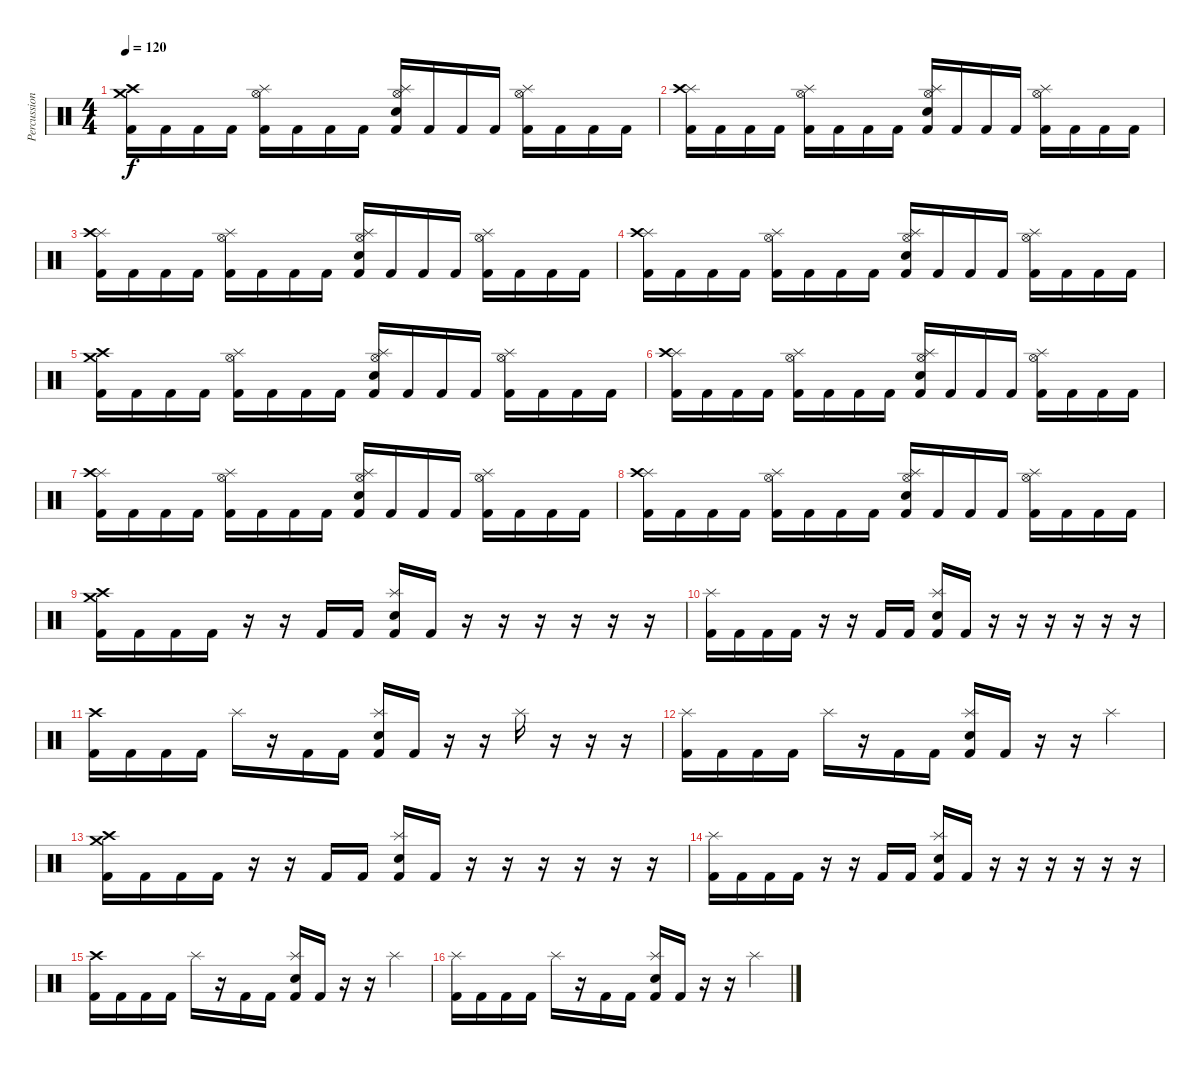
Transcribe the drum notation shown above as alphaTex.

\track ("Percussion" "Percussion") {instrument percussion}
\staff {score}
\articulation defaults
\ts (4 4)
\tempo 120
\clef neutral
\ks c
("Crash medium (hit)" "Crash high (hit)" "Kick (hit) 2").16{dy f} "Kick (hit) 2".16 "Kick (hit) 2".16 "Kick (hit) 2".16 ("Splash (hit)" "Hi-Hat (open)" "Kick (hit) 2").16 "Kick (hit) 2".16 "Kick (hit) 2".16 "Kick (hit) 2".16 ("Splash (hit)" "Hi-Hat (open)" "Snare (hit) 2" "Kick (hit) 2").16 "Kick (hit) 2".16 "Kick (hit) 2".16 "Kick (hit) 2".16 ("Splash (hit)" "Hi-Hat (open)" "Kick (hit) 2").16 "Kick (hit) 2".16 "Kick (hit) 2".16 "Kick (hit) 2".16 |
("Splash (hit)" "Crash high (hit)" "Kick (hit) 2").16 "Kick (hit) 2".16 "Kick (hit) 2".16 "Kick (hit) 2".16 ("Splash (hit)" "Hi-Hat (open)" "Kick (hit) 2").16 "Kick (hit) 2".16 "Kick (hit) 2".16 "Kick (hit) 2".16 ("Splash (hit)" "Hi-Hat (open)" "Snare (hit) 2" "Kick (hit) 2").16 "Kick (hit) 2".16 "Kick (hit) 2".16 "Kick (hit) 2".16 ("Splash (hit)" "Hi-Hat (open)" "Kick (hit) 2").16 "Kick (hit) 2".16 "Kick (hit) 2".16 "Kick (hit) 2".16 |
("Splash (hit)" "Crash high (hit)" "Kick (hit) 2").16 "Kick (hit) 2".16 "Kick (hit) 2".16 "Kick (hit) 2".16 ("Splash (hit)" "Hi-Hat (open)" "Kick (hit) 2").16 "Kick (hit) 2".16 "Kick (hit) 2".16 "Kick (hit) 2".16 ("Splash (hit)" "Hi-Hat (open)" "Snare (hit) 2" "Kick (hit) 2").16 "Kick (hit) 2".16 "Kick (hit) 2".16 "Kick (hit) 2".16 ("Splash (hit)" "Hi-Hat (open)" "Kick (hit) 2").16 "Kick (hit) 2".16 "Kick (hit) 2".16 "Kick (hit) 2".16 |
("Splash (hit)" "Crash high (hit)" "Kick (hit) 2").16 "Kick (hit) 2".16 "Kick (hit) 2".16 "Kick (hit) 2".16 ("Splash (hit)" "Hi-Hat (open)" "Kick (hit) 2").16 "Kick (hit) 2".16 "Kick (hit) 2".16 "Kick (hit) 2".16 ("Splash (hit)" "Hi-Hat (open)" "Snare (hit) 2" "Kick (hit) 2").16 "Kick (hit) 2".16 "Kick (hit) 2".16 "Kick (hit) 2".16 ("Splash (hit)" "Hi-Hat (open)" "Kick (hit) 2").16 "Kick (hit) 2".16 "Kick (hit) 2".16 "Kick (hit) 2".16 |
("Crash medium (hit)" "Crash high (hit)" "Kick (hit) 2").16 "Kick (hit) 2".16 "Kick (hit) 2".16 "Kick (hit) 2".16 ("Splash (hit)" "Hi-Hat (open)" "Kick (hit) 2").16 "Kick (hit) 2".16 "Kick (hit) 2".16 "Kick (hit) 2".16 ("Splash (hit)" "Hi-Hat (open)" "Snare (hit) 2" "Kick (hit) 2").16 "Kick (hit) 2".16 "Kick (hit) 2".16 "Kick (hit) 2".16 ("Splash (hit)" "Hi-Hat (open)" "Kick (hit) 2").16 "Kick (hit) 2".16 "Kick (hit) 2".16 "Kick (hit) 2".16 |
("Splash (hit)" "Crash high (hit)" "Kick (hit) 2").16 "Kick (hit) 2".16 "Kick (hit) 2".16 "Kick (hit) 2".16 ("Splash (hit)" "Hi-Hat (open)" "Kick (hit) 2").16 "Kick (hit) 2".16 "Kick (hit) 2".16 "Kick (hit) 2".16 ("Splash (hit)" "Hi-Hat (open)" "Snare (hit) 2" "Kick (hit) 2").16 "Kick (hit) 2".16 "Kick (hit) 2".16 "Kick (hit) 2".16 ("Splash (hit)" "Hi-Hat (open)" "Kick (hit) 2").16 "Kick (hit) 2".16 "Kick (hit) 2".16 "Kick (hit) 2".16 |
("Splash (hit)" "Crash high (hit)" "Kick (hit) 2").16 "Kick (hit) 2".16 "Kick (hit) 2".16 "Kick (hit) 2".16 ("Splash (hit)" "Hi-Hat (open)" "Kick (hit) 2").16 "Kick (hit) 2".16 "Kick (hit) 2".16 "Kick (hit) 2".16 ("Splash (hit)" "Hi-Hat (open)" "Snare (hit) 2" "Kick (hit) 2").16 "Kick (hit) 2".16 "Kick (hit) 2".16 "Kick (hit) 2".16 ("Splash (hit)" "Hi-Hat (open)" "Kick (hit) 2").16 "Kick (hit) 2".16 "Kick (hit) 2".16 "Kick (hit) 2".16 |
("Splash (hit)" "Crash high (hit)" "Kick (hit) 2").16 "Kick (hit) 2".16 "Kick (hit) 2".16 "Kick (hit) 2".16 ("Splash (hit)" "Hi-Hat (open)" "Kick (hit) 2").16 "Kick (hit) 2".16 "Kick (hit) 2".16 "Kick (hit) 2".16 ("Splash (hit)" "Hi-Hat (open)" "Snare (hit) 2" "Kick (hit) 2").16 "Kick (hit) 2".16 "Kick (hit) 2".16 "Kick (hit) 2".16 ("Splash (hit)" "Hi-Hat (open)" "Kick (hit) 2").16 "Kick (hit) 2".16 "Kick (hit) 2".16 "Kick (hit) 2".16 |
("Crash medium (hit)" "Crash high (hit)" "Kick (hit) 2").16 "Kick (hit) 2".16 "Kick (hit) 2".16 "Kick (hit) 2".16 r.16 r.16 "Kick (hit) 2".16 "Kick (hit) 2".16 ("Splash (hit)" "Snare (hit) 2" "Kick (hit) 2").16 "Kick (hit) 2".16 r.16 r.16 r.16 r.16 r.16 r.16 |
("Splash (hit)" "Kick (hit) 2").16 "Kick (hit) 2".16 "Kick (hit) 2".16 "Kick (hit) 2".16 r.16 r.16 "Kick (hit) 2".16 "Kick (hit) 2".16 ("Splash (hit)" "Snare (hit) 2" "Kick (hit) 2").16 "Kick (hit) 2".16 r.16 r.16 r.16 r.16 r.16 r.16 |
("Crash high (hit)" "Kick (hit) 2").16 "Kick (hit) 2".16 "Kick (hit) 2".16 "Kick (hit) 2".16 "Splash (hit)".16 r.16 "Kick (hit) 2".16 "Kick (hit) 2".16 ("Splash (hit)" "Snare (hit) 2" "Kick (hit) 2").16 "Kick (hit) 2".16 r.16 r.16 "Splash (hit)".16 r.16 r.16 r.16 |
("Splash (hit)" "Kick (hit) 2").16 "Kick (hit) 2".16 "Kick (hit) 2".16 "Kick (hit) 2".16 "Splash (hit)".16 r.16 "Kick (hit) 2".16 "Kick (hit) 2".16 ("Splash (hit)" "Snare (hit) 2" "Kick (hit) 2").16 "Kick (hit) 2".16 r.16 r.16 "Splash (hit)".4 |
("Crash medium (hit)" "Crash high (hit)" "Kick (hit) 2").16 "Kick (hit) 2".16 "Kick (hit) 2".16 "Kick (hit) 2".16 r.16 r.16 "Kick (hit) 2".16 "Kick (hit) 2".16 ("Splash (hit)" "Snare (hit) 2" "Kick (hit) 2").16 "Kick (hit) 2".16 r.16 r.16 r.16 r.16 r.16 r.16 |
("Splash (hit)" "Kick (hit) 2").16 "Kick (hit) 2".16 "Kick (hit) 2".16 "Kick (hit) 2".16 r.16 r.16 "Kick (hit) 2".16 "Kick (hit) 2".16 ("Splash (hit)" "Snare (hit) 2" "Kick (hit) 2").16 "Kick (hit) 2".16 r.16 r.16 r.16 r.16 r.16 r.16 |
("Crash high (hit)" "Kick (hit) 2").16 "Kick (hit) 2".16 "Kick (hit) 2".16 "Kick (hit) 2".16 "Splash (hit)".16 r.16 "Kick (hit) 2".16 "Kick (hit) 2".16 ("Splash (hit)" "Snare (hit) 2" "Kick (hit) 2").16 "Kick (hit) 2".16 r.16 r.16 "Splash (hit)".4 |
("Splash (hit)" "Kick (hit) 2").16 "Kick (hit) 2".16 "Kick (hit) 2".16 "Kick (hit) 2".16 "Splash (hit)".16 r.16 "Kick (hit) 2".16 "Kick (hit) 2".16 ("Splash (hit)" "Snare (hit) 2" "Kick (hit) 2").16 "Kick (hit) 2".16 r.16 r.16 "Splash (hit)".4
